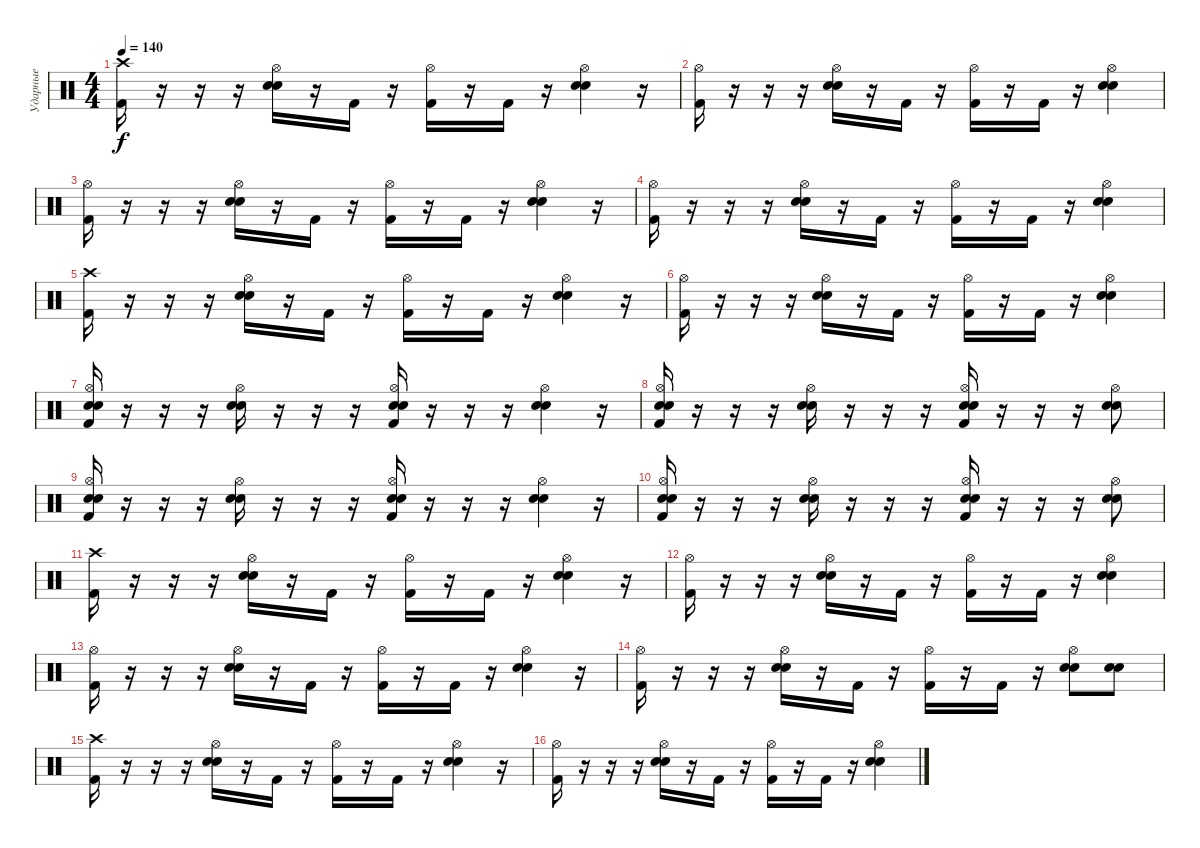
\track ("Ударные" "Ударные") {instrument percussion}
\staff {score}
\articulation defaults
\ts (4 4)
\tempo 140
\clef neutral
\ks c
("Crash high (hit)" "Kick (hit) 2").16{dy f} r.16 r.16 r.16 ("Hi-Hat (open)" "Electric Snare (hit)" "Snare (hit) 2").16 r.16 "Kick (hit) 2".16 r.16 ("Hi-Hat (open)" "Kick (hit) 2").16 r.16 "Kick (hit) 2".16 r.16 ("Hi-Hat (open)" "Electric Snare (hit)" "Snare (hit) 2").4 r.16 |
("Hi-Hat (open)" "Kick (hit) 2").16 r.16 r.16 r.16 ("Hi-Hat (open)" "Electric Snare (hit)" "Snare (hit) 2").16 r.16 "Kick (hit) 2".16 r.16 ("Hi-Hat (open)" "Kick (hit) 2").16 r.16 "Kick (hit) 2".16 r.16 ("Hi-Hat (open)" "Electric Snare (hit)" "Snare (hit) 2").4 |
("Hi-Hat (open)" "Kick (hit) 2").16 r.16 r.16 r.16 ("Hi-Hat (open)" "Electric Snare (hit)" "Snare (hit) 2").16 r.16 "Kick (hit) 2".16 r.16 ("Hi-Hat (open)" "Kick (hit) 2").16 r.16 "Kick (hit) 2".16 r.16 ("Hi-Hat (open)" "Electric Snare (hit)" "Snare (hit) 2").4 r.16 |
("Hi-Hat (open)" "Kick (hit) 2").16 r.16 r.16 r.16 ("Hi-Hat (open)" "Electric Snare (hit)" "Snare (hit) 2").16 r.16 "Kick (hit) 2".16 r.16 ("Hi-Hat (open)" "Kick (hit) 2").16 r.16 "Kick (hit) 2".16 r.16 ("Hi-Hat (open)" "Electric Snare (hit)" "Snare (hit) 2").4 |
("Crash high (hit)" "Kick (hit) 2").16 r.16 r.16 r.16 ("Hi-Hat (open)" "Electric Snare (hit)" "Snare (hit) 2").16 r.16 "Kick (hit) 2".16 r.16 ("Hi-Hat (open)" "Kick (hit) 2").16 r.16 "Kick (hit) 2".16 r.16 ("Hi-Hat (open)" "Electric Snare (hit)" "Snare (hit) 2").4 r.16 |
("Hi-Hat (open)" "Kick (hit) 2").16 r.16 r.16 r.16 ("Hi-Hat (open)" "Electric Snare (hit)" "Snare (hit) 2").16 r.16 "Kick (hit) 2".16 r.16 ("Hi-Hat (open)" "Kick (hit) 2").16 r.16 "Kick (hit) 2".16 r.16 ("Hi-Hat (open)" "Electric Snare (hit)" "Snare (hit) 2").4 |
("Hi-Hat (open)" "Kick (hit) 2" "Electric Snare (hit)" "Snare (hit) 2").16 r.16 r.16 r.16 ("Hi-Hat (open)" "Electric Snare (hit)" "Snare (hit) 2").16 r.16 r.16 r.16 ("Hi-Hat (open)" "Kick (hit) 2" "Electric Snare (hit)" "Snare (hit) 2").16 r.16 r.16 r.16 ("Hi-Hat (open)" "Electric Snare (hit)" "Snare (hit) 2").4 r.16 |
("Hi-Hat (open)" "Kick (hit) 2" "Electric Snare (hit)" "Snare (hit) 2").16 r.16 r.16 r.16 ("Hi-Hat (open)" "Electric Snare (hit)" "Snare (hit) 2").16 r.16 r.16 r.16 ("Hi-Hat (open)" "Kick (hit) 2" "Electric Snare (hit)" "Snare (hit) 2").16 r.16 r.16 r.16 ("Hi-Hat (open)" "Electric Snare (hit)" "Snare (hit) 2").8 |
("Hi-Hat (open)" "Kick (hit) 2" "Electric Snare (hit)" "Snare (hit) 2").16 r.16 r.16 r.16 ("Hi-Hat (open)" "Electric Snare (hit)" "Snare (hit) 2").16 r.16 r.16 r.16 ("Hi-Hat (open)" "Kick (hit) 2" "Electric Snare (hit)" "Snare (hit) 2").16 r.16 r.16 r.16 ("Hi-Hat (open)" "Electric Snare (hit)" "Snare (hit) 2").4 r.16 |
("Hi-Hat (open)" "Kick (hit) 2" "Electric Snare (hit)" "Snare (hit) 2").16 r.16 r.16 r.16 ("Hi-Hat (open)" "Electric Snare (hit)" "Snare (hit) 2").16 r.16 r.16 r.16 ("Hi-Hat (open)" "Kick (hit) 2" "Electric Snare (hit)" "Snare (hit) 2").16 r.16 r.16 r.16 ("Hi-Hat (open)" "Electric Snare (hit)" "Snare (hit) 2").8 |
("Crash high (hit)" "Kick (hit) 2").16 r.16 r.16 r.16 ("Hi-Hat (open)" "Electric Snare (hit)" "Snare (hit) 2").16 r.16 "Kick (hit) 2".16 r.16 ("Hi-Hat (open)" "Kick (hit) 2").16 r.16 "Kick (hit) 2".16 r.16 ("Hi-Hat (open)" "Electric Snare (hit)" "Snare (hit) 2").4 r.16 |
("Hi-Hat (open)" "Kick (hit) 2").16 r.16 r.16 r.16 ("Hi-Hat (open)" "Electric Snare (hit)" "Snare (hit) 2").16 r.16 "Kick (hit) 2".16 r.16 ("Hi-Hat (open)" "Kick (hit) 2").16 r.16 "Kick (hit) 2".16 r.16 ("Hi-Hat (open)" "Electric Snare (hit)" "Snare (hit) 2").4 |
("Hi-Hat (open)" "Kick (hit) 2").16 r.16 r.16 r.16 ("Hi-Hat (open)" "Electric Snare (hit)" "Snare (hit) 2").16 r.16 "Kick (hit) 2".16 r.16 ("Hi-Hat (open)" "Kick (hit) 2").16 r.16 "Kick (hit) 2".16 r.16 ("Hi-Hat (open)" "Electric Snare (hit)" "Snare (hit) 2").4 r.16 |
("Hi-Hat (open)" "Kick (hit) 2").16 r.16 r.16 r.16 ("Hi-Hat (open)" "Electric Snare (hit)" "Snare (hit) 2").16 r.16 "Kick (hit) 2".16 r.16 ("Hi-Hat (open)" "Kick (hit) 2").16 r.16 "Kick (hit) 2".16 r.16 ("Hi-Hat (open)" "Electric Snare (hit)" "Snare (hit) 2").8 ("Electric Snare (hit)" "Snare (hit) 2").8 |
("Crash high (hit)" "Kick (hit) 2").16 r.16 r.16 r.16 ("Hi-Hat (open)" "Electric Snare (hit)" "Snare (hit) 2").16 r.16 "Kick (hit) 2".16 r.16 ("Hi-Hat (open)" "Kick (hit) 2").16 r.16 "Kick (hit) 2".16 r.16 ("Hi-Hat (open)" "Electric Snare (hit)" "Snare (hit) 2").4 r.16 |
("Hi-Hat (open)" "Kick (hit) 2").16 r.16 r.16 r.16 ("Hi-Hat (open)" "Electric Snare (hit)" "Snare (hit) 2").16 r.16 "Kick (hit) 2".16 r.16 ("Hi-Hat (open)" "Kick (hit) 2").16 r.16 "Kick (hit) 2".16 r.16 ("Hi-Hat (open)" "Electric Snare (hit)" "Snare (hit) 2").4
